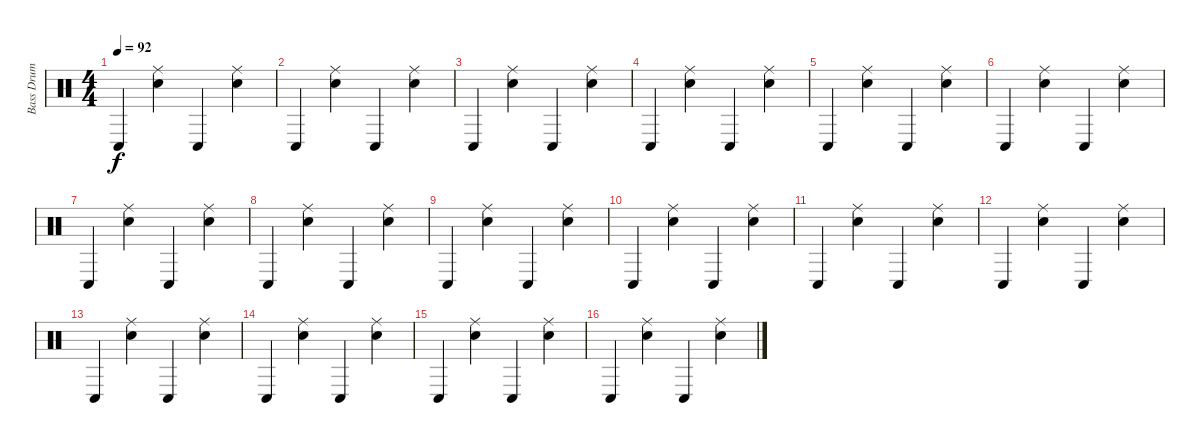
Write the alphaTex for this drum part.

\track ("Bass Drum" "Bass Drum") {instrument percussion}
\staff {score}
\articulation defaults
\ts (4 4)
\tempo 92
\clef neutral
\ks c "Conga low (hit)".4{dy f}
("Snare (hit) 2" "Ride (middle)").4 "Conga low (hit)".4 ("Snare (hit) 2" "Ride (middle)").4 |
"Conga low (hit)".4 ("Snare (hit) 2" "Ride (middle)").4 "Conga low (hit)".4 ("Snare (hit) 2" "Ride (middle)").4 |
"Conga low (hit)".4 ("Snare (hit) 2" "Ride (middle)").4 "Conga low (hit)".4 ("Snare (hit) 2" "Ride (middle)").4 |
"Conga low (hit)".4 ("Snare (hit) 2" "Ride (middle)").4 "Conga low (hit)".4 ("Snare (hit) 2" "Ride (middle)").4 |
"Conga low (hit)".4 ("Snare (hit) 2" "Ride (middle)").4 "Conga low (hit)".4 ("Snare (hit) 2" "Ride (middle)").4 |
"Conga low (hit)".4 ("Snare (hit) 2" "Ride (middle)").4 "Conga low (hit)".4 ("Snare (hit) 2" "Ride (middle)").4 |
"Conga low (hit)".4 ("Snare (hit) 2" "Ride (middle)").4 "Conga low (hit)".4 ("Snare (hit) 2" "Ride (middle)").4 |
"Conga low (hit)".4 ("Snare (hit) 2" "Ride (middle)").4 "Conga low (hit)".4 ("Snare (hit) 2" "Ride (middle)").4 |
"Conga low (hit)".4 ("Snare (hit) 2" "Ride (middle)").4 "Conga low (hit)".4 ("Snare (hit) 2" "Ride (middle)").4 |
"Conga low (hit)".4 ("Snare (hit) 2" "Ride (middle)").4 "Conga low (hit)".4 ("Snare (hit) 2" "Ride (middle)").4 |
"Conga low (hit)".4 ("Snare (hit) 2" "Ride (middle)").4 "Conga low (hit)".4 ("Snare (hit) 2" "Ride (middle)").4 |
"Conga low (hit)".4 ("Snare (hit) 2" "Ride (middle)").4 "Conga low (hit)".4 ("Snare (hit) 2" "Ride (middle)").4 |
"Conga low (hit)".4 ("Snare (hit) 2" "Ride (middle)").4 "Conga low (hit)".4 ("Snare (hit) 2" "Ride (middle)").4 |
"Conga low (hit)".4 ("Snare (hit) 2" "Ride (middle)").4 "Conga low (hit)".4 ("Snare (hit) 2" "Ride (middle)").4 |
"Conga low (hit)".4 ("Snare (hit) 2" "Ride (middle)").4 "Conga low (hit)".4 ("Snare (hit) 2" "Ride (middle)").4 |
"Conga low (hit)".4 ("Snare (hit) 2" "Ride (middle)").4 "Conga low (hit)".4 ("Snare (hit) 2" "Ride (middle)").4
